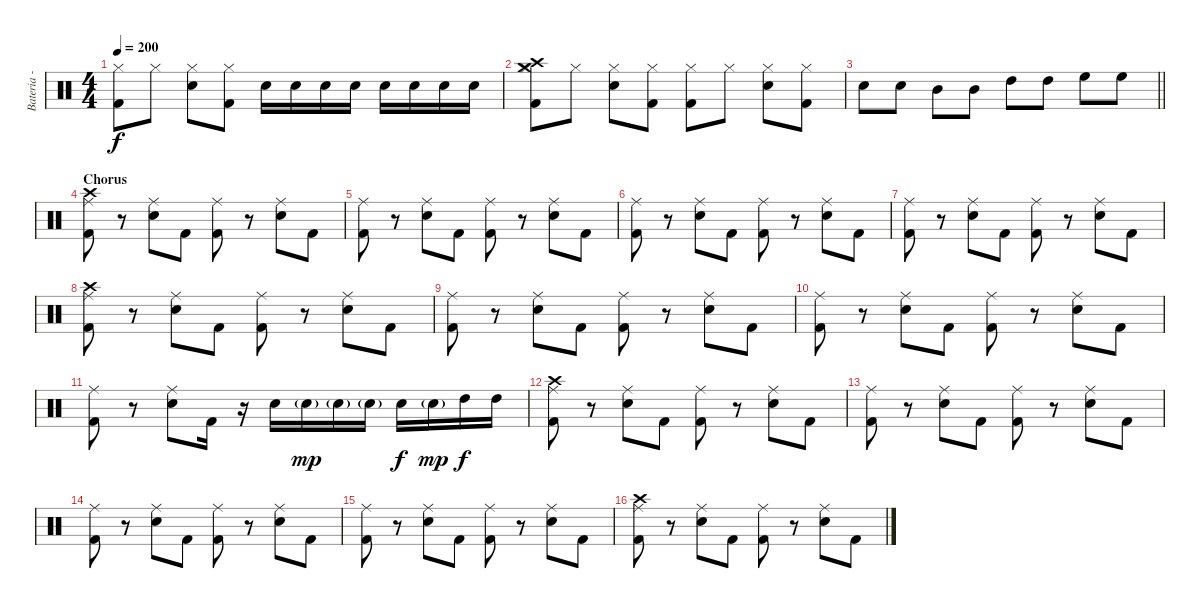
\track ("Bateria - Larzon" "Bateria - ") {instrument percussion}
\staff {score}
\articulation defaults
\ts (4 4)
\tempo 200
\clef neutral
\ks c
("Kick (hit) 2" "Hi-Hat (closed)").8{dy f} "Hi-Hat (closed)".8 ("Electric Snare (hit)" "Hi-Hat (closed)").8 ("Kick (hit) 2" "Hi-Hat (closed)").8 "Electric Snare (hit)".16 "Electric Snare (hit)".16 "Electric Snare (hit)".16 "Electric Snare (hit)".16 "Electric Snare (hit)".16 "Electric Snare (hit)".16 "Electric Snare (hit)".16 "Electric Snare (hit)".16 |
("Kick (hit) 2" "Hi-Hat (closed)" "Crash high (hit)" "Crash medium (hit)").8 "Hi-Hat (closed)".8 ("Electric Snare (hit)" "Hi-Hat (closed)").8 ("Kick (hit) 2" "Hi-Hat (closed)").8 ("Kick (hit) 2" "Hi-Hat (closed)").8 "Hi-Hat (closed)".8 ("Electric Snare (hit)" "Hi-Hat (closed)").8 ("Kick (hit) 2" "Hi-Hat (closed)").8 |
\barLineRight lightlight "Electric Snare (hit)".8 "Electric Snare (hit)".8 "Mid Tom (hit)".8 "Mid Tom (hit)".8 "High Tom (hit)".8 "High Tom (hit)".8 "High Floor Tom (hit)".8 "High Floor Tom (hit)".8
|
\section ("" "Chorus")
("Kick (hit) 2" "Ride (middle)" "Crash high (hit)").8 r.8 ("Electric Snare (hit)" "Ride (middle)").8 "Kick (hit) 2".8 ("Kick (hit) 2" "Ride (middle)").8 r.8 ("Electric Snare (hit)" "Ride (middle)").8 "Kick (hit) 2".8 |
("Kick (hit) 2" "Ride (middle)").8 r.8 ("Electric Snare (hit)" "Ride (middle)").8 "Kick (hit) 2".8 ("Kick (hit) 2" "Ride (middle)").8 r.8 ("Electric Snare (hit)" "Ride (middle)").8 "Kick (hit) 2".8 |
("Kick (hit) 2" "Ride (middle)").8 r.8 ("Electric Snare (hit)" "Ride (middle)").8 "Kick (hit) 2".8 ("Kick (hit) 2" "Ride (middle)").8 r.8 ("Electric Snare (hit)" "Ride (middle)").8 "Kick (hit) 2".8 |
("Kick (hit) 2" "Ride (middle)").8 r.8 ("Electric Snare (hit)" "Ride (middle)").8 "Kick (hit) 2".8 ("Kick (hit) 2" "Ride (middle)").8 r.8 ("Electric Snare (hit)" "Ride (middle)").8 "Kick (hit) 2".8 |
("Kick (hit) 2" "Ride (middle)" "Crash high (hit)").8 r.8 ("Electric Snare (hit)" "Ride (middle)").8 "Kick (hit) 2".8 ("Kick (hit) 2" "Ride (middle)").8 r.8 ("Electric Snare (hit)" "Ride (middle)").8 "Kick (hit) 2".8 |
("Kick (hit) 2" "Ride (middle)").8 r.8 ("Electric Snare (hit)" "Ride (middle)").8 "Kick (hit) 2".8 ("Kick (hit) 2" "Ride (middle)").8 r.8 ("Electric Snare (hit)" "Ride (middle)").8 "Kick (hit) 2".8 |
("Kick (hit) 2" "Ride (middle)").8 r.8 ("Electric Snare (hit)" "Ride (middle)").8 "Kick (hit) 2".8 ("Kick (hit) 2" "Ride (middle)").8 r.8 ("Electric Snare (hit)" "Ride (middle)").8 "Kick (hit) 2".8 |
("Kick (hit) 2" "Ride (middle)").8 r.8 ("Electric Snare (hit)" "Ride (middle)").8 "Kick (hit) 2".16 r.16 "Electric Snare (hit)".16 "Electric Snare (hit)"{g}.16{dy mp} "Electric Snare (hit)"{g}.16 "Electric Snare (hit)"{g}.16 "Electric Snare (hit)".16{dy f} "Electric Snare (hit)"{g}.16{dy mp} "High Tom (hit)".16{dy f} "High Tom (hit)".16 |
("Kick (hit) 2" "Ride (middle)" "Crash high (hit)").8 r.8 ("Electric Snare (hit)" "Ride (middle)").8 "Kick (hit) 2".8 ("Kick (hit) 2" "Ride (middle)").8 r.8 ("Electric Snare (hit)" "Ride (middle)").8 "Kick (hit) 2".8 |
("Kick (hit) 2" "Ride (middle)").8 r.8 ("Electric Snare (hit)" "Ride (middle)").8 "Kick (hit) 2".8 ("Kick (hit) 2" "Ride (middle)").8 r.8 ("Electric Snare (hit)" "Ride (middle)").8 "Kick (hit) 2".8 |
("Kick (hit) 2" "Ride (middle)").8 r.8 ("Electric Snare (hit)" "Ride (middle)").8 "Kick (hit) 2".8 ("Kick (hit) 2" "Ride (middle)").8 r.8 ("Electric Snare (hit)" "Ride (middle)").8 "Kick (hit) 2".8 |
("Kick (hit) 2" "Ride (middle)").8 r.8 ("Electric Snare (hit)" "Ride (middle)").8 "Kick (hit) 2".8 ("Kick (hit) 2" "Ride (middle)").8 r.8 ("Electric Snare (hit)" "Ride (middle)").8 "Kick (hit) 2".8 |
("Kick (hit) 2" "Ride (middle)" "Crash high (hit)").8 r.8 ("Electric Snare (hit)" "Ride (middle)").8 "Kick (hit) 2".8 ("Kick (hit) 2" "Ride (middle)").8 r.8 ("Electric Snare (hit)" "Ride (middle)").8 "Kick (hit) 2".8
